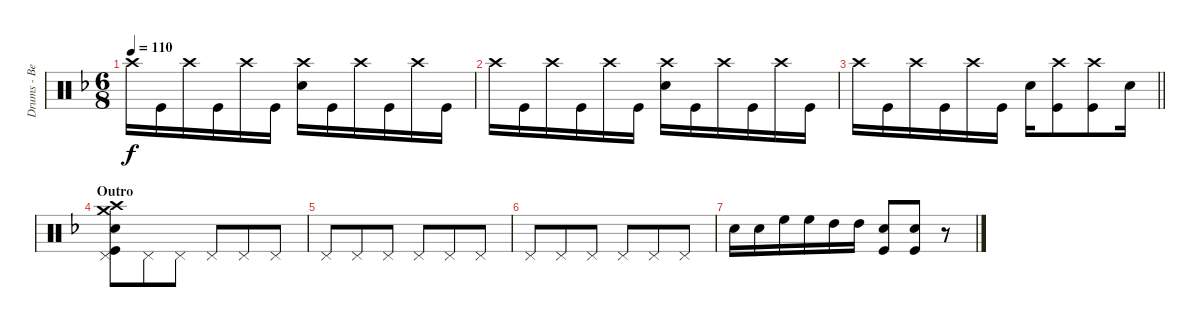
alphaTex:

\track ("Drums - Ben Johnston" "Drums - Be") {instrument percussion}
\staff {score}
\articulation defaults
\ts (6 8)
\tempo 110
\clef neutral
\ks dminor "Crash high (hit)".16{dy f} "Kick (hit)".16 "Crash high (hit)".16 "Kick (hit)".16 "Crash high (hit)".16 "Kick (hit)".16
("Crash high (hit)" "Snare (hit) 2").16 "Kick (hit)".16 "Crash high (hit)".16 "Kick (hit)".16 "Crash high (hit)".16 "Kick (hit)".16 |
"Crash high (hit)".16 "Kick (hit)".16 "Crash high (hit)".16 "Kick (hit)".16 "Crash high (hit)".16 "Kick (hit)".16 ("Crash high (hit)" "Snare (hit) 2").16 "Kick (hit)".16 "Crash high (hit)".16 "Kick (hit)".16 "Crash high (hit)".16 "Kick (hit)".16 |
\barLineRight lightlight "Crash high (hit)".16 "Kick (hit)".16 "Crash high (hit)".16 "Kick (hit)".16 "Crash high (hit)".16 "Kick (hit)".16 "Snare (hit) 2".16
("Crash high (hit)" "Kick (hit)").8 ("Crash high (hit)" "Kick (hit)").8 "Snare (hit) 2".16 |
\section ("" "Outro")
("Crash high (hit)" "Crash medium (hit)" "Pedal Hi-Hat (hit)" "Snare (hit) 2" "Kick (hit)").8 "Pedal Hi-Hat (hit)".8 "Pedal Hi-Hat (hit)".8 "Pedal Hi-Hat (hit)".8 "Pedal Hi-Hat (hit)".8 "Pedal Hi-Hat (hit)".8 |
"Pedal Hi-Hat (hit)".8 "Pedal Hi-Hat (hit)".8 "Pedal Hi-Hat (hit)".8 "Pedal Hi-Hat (hit)".8 "Pedal Hi-Hat (hit)".8 "Pedal Hi-Hat (hit)".8 |
"Pedal Hi-Hat (hit)".8 "Pedal Hi-Hat (hit)".8 "Pedal Hi-Hat (hit)".8 "Pedal Hi-Hat (hit)".8 "Pedal Hi-Hat (hit)".8 "Pedal Hi-Hat (hit)".8 |
"Snare (hit) 2".16 "Snare (hit) 2".16 "High Floor Tom (hit)".16 "High Floor Tom (hit)".16 "High Tom (hit)".16 "High Tom (hit)".16 ("Snare (hit) 2" "Kick (hit)").8 ("Snare (hit) 2" "Kick (hit)").8 r.8
